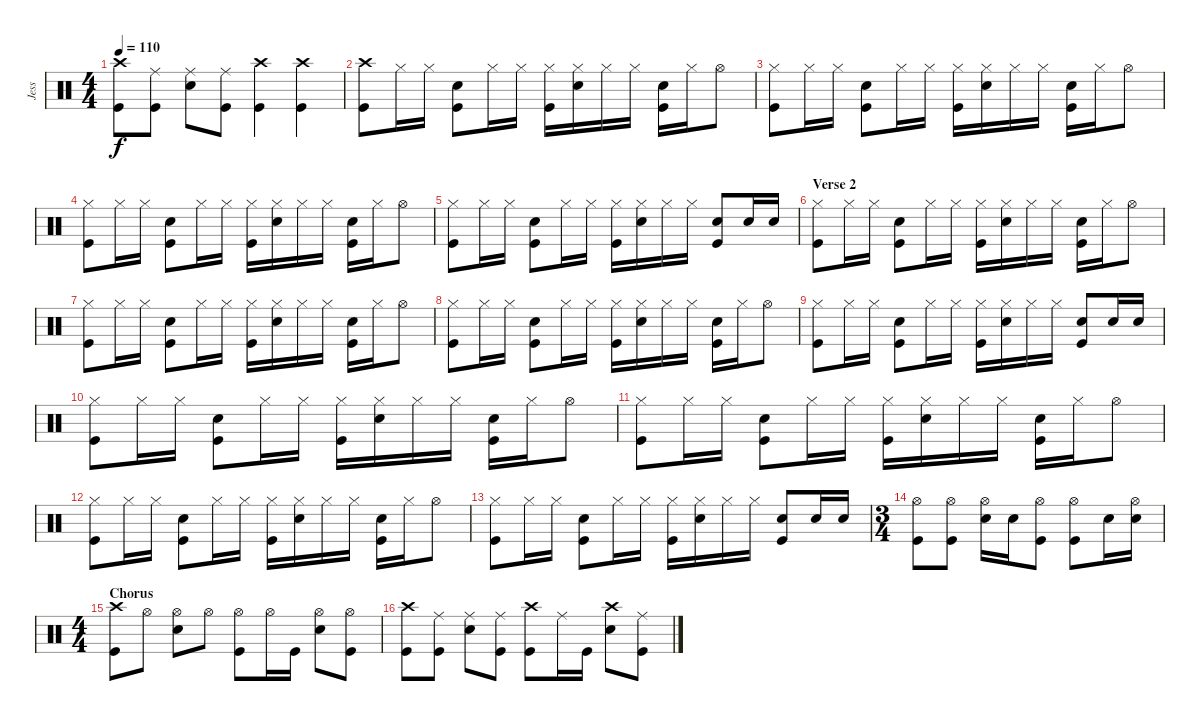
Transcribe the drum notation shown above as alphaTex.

\track ("Jess" "Jess") {instrument percussion}
\staff {score}
\articulation defaults
\ts (4 4)
\tempo 110
\clef neutral
\ks c
("Crash high (hit)" "Kick (hit)").8{dy f} ("Ride (middle)" "Kick (hit)").8 ("Ride (middle)" "Electric Snare (hit)").8 ("Ride (middle)" "Kick (hit)").8 ("Crash high (hit)" "Kick (hit)").4 ("Crash high (hit)" "Kick (hit)").4 |
("Crash high (hit)" "Kick (hit)").8 "Hi-Hat (closed)".16 "Hi-Hat (closed)".16 ("Electric Snare (hit)" "Kick (hit)").8 "Hi-Hat (closed)".16 "Hi-Hat (closed)".16 ("Hi-Hat (closed)" "Kick (hit)").16 ("Hi-Hat (closed)" "Electric Snare (hit)").16 "Hi-Hat (closed)".16 "Hi-Hat (closed)".16 ("Electric Snare (hit)" "Kick (hit)").16 "Hi-Hat (closed)".16 "Hi-Hat (open)".8 |
("Hi-Hat (closed)" "Kick (hit)").8 "Hi-Hat (closed)".16 "Hi-Hat (closed)".16 ("Electric Snare (hit)" "Kick (hit)").8 "Hi-Hat (closed)".16 "Hi-Hat (closed)".16 ("Hi-Hat (closed)" "Kick (hit)").16 ("Hi-Hat (closed)" "Electric Snare (hit)").16 "Hi-Hat (closed)".16 "Hi-Hat (closed)".16 ("Electric Snare (hit)" "Kick (hit)").16 "Hi-Hat (closed)".16 "Hi-Hat (open)".8 |
("Hi-Hat (closed)" "Kick (hit)").8 "Hi-Hat (closed)".16 "Hi-Hat (closed)".16 ("Electric Snare (hit)" "Kick (hit)").8 "Hi-Hat (closed)".16 "Hi-Hat (closed)".16 ("Hi-Hat (closed)" "Kick (hit)").16 ("Hi-Hat (closed)" "Electric Snare (hit)").16 "Hi-Hat (closed)".16 "Hi-Hat (closed)".16 ("Electric Snare (hit)" "Kick (hit)").16 "Hi-Hat (closed)".16 "Hi-Hat (open)".8 |
("Hi-Hat (closed)" "Kick (hit)").8 "Hi-Hat (closed)".16 "Hi-Hat (closed)".16 ("Electric Snare (hit)" "Kick (hit)").8 "Hi-Hat (closed)".16 "Hi-Hat (closed)".16 ("Hi-Hat (closed)" "Kick (hit)").16 ("Hi-Hat (closed)" "Electric Snare (hit)").16 "Hi-Hat (closed)".16 "Hi-Hat (closed)".16 ("Electric Snare (hit)" "Kick (hit)").8 "Electric Snare (hit)".16 "Electric Snare (hit)".16 |
\section ("" "Verse 2 ")
("Hi-Hat (closed)" "Kick (hit)").8 "Hi-Hat (closed)".16 "Hi-Hat (closed)".16 ("Electric Snare (hit)" "Kick (hit)").8 "Hi-Hat (closed)".16 "Hi-Hat (closed)".16 ("Hi-Hat (closed)" "Kick (hit)").16 ("Hi-Hat (closed)" "Electric Snare (hit)").16 "Hi-Hat (closed)".16 "Hi-Hat (closed)".16 ("Electric Snare (hit)" "Kick (hit)").16 "Hi-Hat (closed)".16 "Hi-Hat (open)".8 |
("Hi-Hat (closed)" "Kick (hit)").8 "Hi-Hat (closed)".16 "Hi-Hat (closed)".16 ("Electric Snare (hit)" "Kick (hit)").8 "Hi-Hat (closed)".16 "Hi-Hat (closed)".16 ("Hi-Hat (closed)" "Kick (hit)").16 ("Hi-Hat (closed)" "Electric Snare (hit)").16 "Hi-Hat (closed)".16 "Hi-Hat (closed)".16 ("Electric Snare (hit)" "Kick (hit)").16 "Hi-Hat (closed)".16 "Hi-Hat (open)".8 |
("Hi-Hat (closed)" "Kick (hit)").8 "Hi-Hat (closed)".16 "Hi-Hat (closed)".16 ("Electric Snare (hit)" "Kick (hit)").8 "Hi-Hat (closed)".16 "Hi-Hat (closed)".16 ("Hi-Hat (closed)" "Kick (hit)").16 ("Hi-Hat (closed)" "Electric Snare (hit)").16 "Hi-Hat (closed)".16 "Hi-Hat (closed)".16 ("Electric Snare (hit)" "Kick (hit)").16 "Hi-Hat (closed)".16 "Hi-Hat (open)".8 |
("Hi-Hat (closed)" "Kick (hit)").8 "Hi-Hat (closed)".16 "Hi-Hat (closed)".16 ("Electric Snare (hit)" "Kick (hit)").8 "Hi-Hat (closed)".16 "Hi-Hat (closed)".16 ("Hi-Hat (closed)" "Kick (hit)").16 ("Hi-Hat (closed)" "Electric Snare (hit)").16 "Hi-Hat (closed)".16 "Hi-Hat (closed)".16 ("Electric Snare (hit)" "Kick (hit)").8 "Electric Snare (hit)".16 "Electric Snare (hit)".16 |
("Hi-Hat (closed)" "Kick (hit)").8 "Hi-Hat (closed)".16 "Hi-Hat (closed)".16 ("Electric Snare (hit)" "Kick (hit)").8 "Hi-Hat (closed)".16 "Hi-Hat (closed)".16 ("Hi-Hat (closed)" "Kick (hit)").16 ("Hi-Hat (closed)" "Electric Snare (hit)").16 "Hi-Hat (closed)".16 "Hi-Hat (closed)".16 ("Electric Snare (hit)" "Kick (hit)").16 "Hi-Hat (closed)".16 "Hi-Hat (open)".8 |
("Hi-Hat (closed)" "Kick (hit)").8 "Hi-Hat (closed)".16 "Hi-Hat (closed)".16 ("Electric Snare (hit)" "Kick (hit)").8 "Hi-Hat (closed)".16 "Hi-Hat (closed)".16 ("Hi-Hat (closed)" "Kick (hit)").16 ("Hi-Hat (closed)" "Electric Snare (hit)").16 "Hi-Hat (closed)".16 "Hi-Hat (closed)".16 ("Electric Snare (hit)" "Kick (hit)").16 "Hi-Hat (closed)".16 "Hi-Hat (open)".8 |
("Hi-Hat (closed)" "Kick (hit)").8 "Hi-Hat (closed)".16 "Hi-Hat (closed)".16 ("Electric Snare (hit)" "Kick (hit)").8 "Hi-Hat (closed)".16 "Hi-Hat (closed)".16 ("Hi-Hat (closed)" "Kick (hit)").16 ("Hi-Hat (closed)" "Electric Snare (hit)").16 "Hi-Hat (closed)".16 "Hi-Hat (closed)".16 ("Electric Snare (hit)" "Kick (hit)").16 "Hi-Hat (closed)".16 "Hi-Hat (open)".8 |
("Hi-Hat (closed)" "Kick (hit)").8 "Hi-Hat (closed)".16 "Hi-Hat (closed)".16 ("Electric Snare (hit)" "Kick (hit)").8 "Hi-Hat (closed)".16 "Hi-Hat (closed)".16 ("Hi-Hat (closed)" "Kick (hit)").16 ("Hi-Hat (closed)" "Electric Snare (hit)").16 "Hi-Hat (closed)".16 "Hi-Hat (closed)".16 ("Electric Snare (hit)" "Kick (hit)").8 "Electric Snare (hit)".16 "Electric Snare (hit)".16 |
\ts (3 4)
("Hi-Hat (open)" "Kick (hit)").8 ("Hi-Hat (open)" "Kick (hit)").8 ("Hi-Hat (open)" "Electric Snare (hit)").16 "Electric Snare (hit)".16 ("Hi-Hat (open)" "Kick (hit)").8 ("Hi-Hat (open)" "Kick (hit)").8 "Electric Snare (hit)".16 ("Hi-Hat (open)" "Electric Snare (hit)").16 |
\ts (4 4)
\section ("" "Chorus")
("Crash high (hit)" "Kick (hit)").8 "Hi-Hat (open)".8 ("Hi-Hat (open)" "Electric Snare (hit)").8 "Hi-Hat (open)".8 ("Hi-Hat (open)" "Kick (hit)").8 "Hi-Hat (open)".16 "Kick (hit)".16 ("Hi-Hat (open)" "Electric Snare (hit)").8 ("Hi-Hat (open)" "Kick (hit)").8 |
("Crash high (hit)" "Kick (hit)").8 ("Ride (middle)" "Kick (hit)").8 ("Ride (middle)" "Electric Snare (hit)").8 ("Ride (middle)" "Kick (hit)").8 ("Crash high (hit)" "Kick (hit)").8 "Ride (middle)".16 "Kick (hit)".16 ("Crash high (hit)" "Electric Snare (hit)").8 ("Ride (middle)" "Kick (hit)").8
